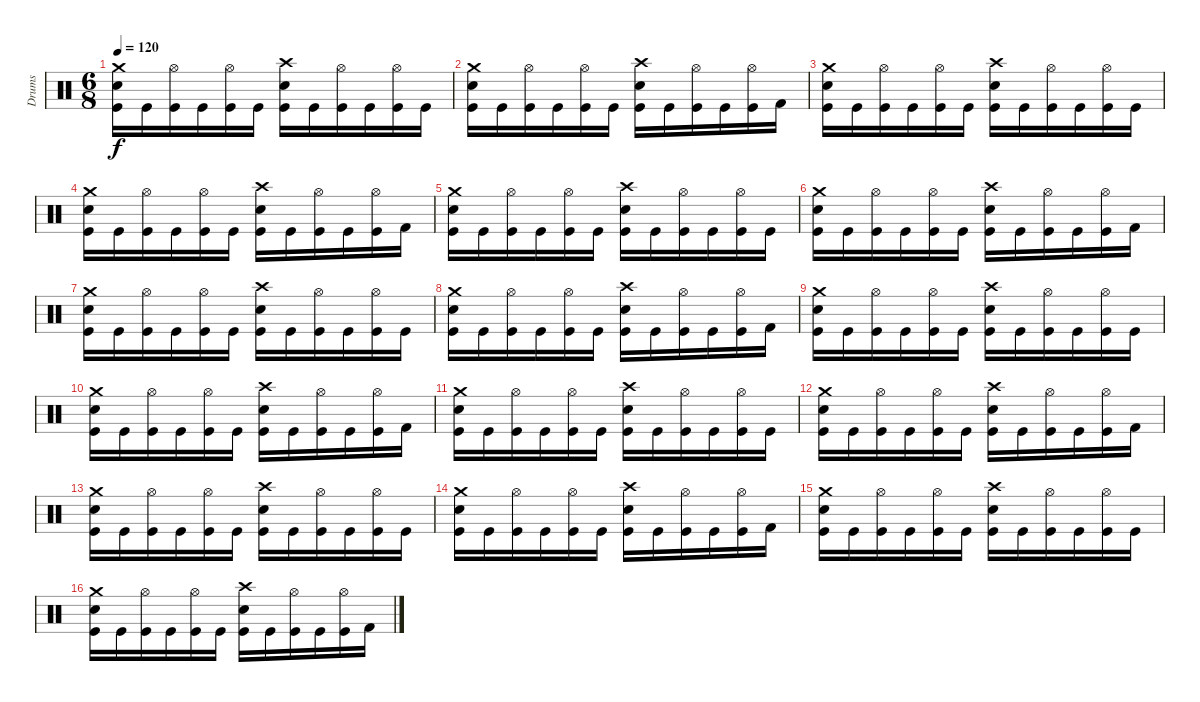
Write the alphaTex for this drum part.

\track ("Drums" "Drums") {instrument percussion}
\staff {score}
\articulation defaults
\ts (6 8)
\tempo 120
\clef neutral
\ks c
("Crash medium (hit)" "Electric Snare (hit)" "Kick (hit)").16{dy f beam merge} "Kick (hit)".16 ("Hi-Hat (open)" "Kick (hit)").16 "Kick (hit)".16 ("Hi-Hat (open)" "Kick (hit)").16 "Kick (hit)".16 ("Crash high (hit)" "Electric Snare (hit)" "Kick (hit)").16{beam merge} "Kick (hit)".16 ("Hi-Hat (open)" "Kick (hit)").16 "Kick (hit)".16 ("Hi-Hat (open)" "Kick (hit)").16 "Kick (hit)".16 |
("Crash medium (hit)" "Electric Snare (hit)" "Kick (hit)").16 "Kick (hit)".16 ("Hi-Hat (open)" "Kick (hit)").16 "Kick (hit)".16 ("Hi-Hat (open)" "Kick (hit)").16 "Kick (hit)".16 ("Crash high (hit)" "Electric Snare (hit)" "Kick (hit)").16{beam merge} "Kick (hit)".16{beam merge} ("Hi-Hat (open)" "Kick (hit)").16{beam merge} "Kick (hit)".16 ("Hi-Hat (open)" "Kick (hit)").16 "Kick (hit) 2".16 |
("Crash medium (hit)" "Electric Snare (hit)" "Kick (hit)").16{beam merge} "Kick (hit)".16 ("Hi-Hat (open)" "Kick (hit)").16 "Kick (hit)".16 ("Hi-Hat (open)" "Kick (hit)").16 "Kick (hit)".16 ("Crash high (hit)" "Electric Snare (hit)" "Kick (hit)").16{beam merge} "Kick (hit)".16 ("Hi-Hat (open)" "Kick (hit)").16 "Kick (hit)".16 ("Hi-Hat (open)" "Kick (hit)").16 "Kick (hit)".16 |
("Crash medium (hit)" "Electric Snare (hit)" "Kick (hit)").16 "Kick (hit)".16 ("Hi-Hat (open)" "Kick (hit)").16 "Kick (hit)".16 ("Hi-Hat (open)" "Kick (hit)").16 "Kick (hit)".16 ("Crash high (hit)" "Electric Snare (hit)" "Kick (hit)").16{beam merge} "Kick (hit)".16{beam merge} ("Hi-Hat (open)" "Kick (hit)").16{beam merge} "Kick (hit)".16 ("Hi-Hat (open)" "Kick (hit)").16 "Kick (hit) 2".16 |
("Crash medium (hit)" "Electric Snare (hit)" "Kick (hit)").16{beam merge} "Kick (hit)".16 ("Hi-Hat (open)" "Kick (hit)").16 "Kick (hit)".16 ("Hi-Hat (open)" "Kick (hit)").16 "Kick (hit)".16 ("Crash high (hit)" "Electric Snare (hit)" "Kick (hit)").16{beam merge} "Kick (hit)".16 ("Hi-Hat (open)" "Kick (hit)").16 "Kick (hit)".16 ("Hi-Hat (open)" "Kick (hit)").16 "Kick (hit)".16 |
("Crash medium (hit)" "Electric Snare (hit)" "Kick (hit)").16 "Kick (hit)".16 ("Hi-Hat (open)" "Kick (hit)").16 "Kick (hit)".16 ("Hi-Hat (open)" "Kick (hit)").16 "Kick (hit)".16 ("Crash high (hit)" "Electric Snare (hit)" "Kick (hit)").16{beam merge} "Kick (hit)".16{beam merge} ("Hi-Hat (open)" "Kick (hit)").16{beam merge} "Kick (hit)".16 ("Hi-Hat (open)" "Kick (hit)").16 "Kick (hit) 2".16 |
("Crash medium (hit)" "Electric Snare (hit)" "Kick (hit)").16{beam merge} "Kick (hit)".16 ("Hi-Hat (open)" "Kick (hit)").16 "Kick (hit)".16 ("Hi-Hat (open)" "Kick (hit)").16 "Kick (hit)".16 ("Crash high (hit)" "Electric Snare (hit)" "Kick (hit)").16{beam merge} "Kick (hit)".16 ("Hi-Hat (open)" "Kick (hit)").16 "Kick (hit)".16 ("Hi-Hat (open)" "Kick (hit)").16 "Kick (hit)".16 |
("Crash medium (hit)" "Electric Snare (hit)" "Kick (hit)").16 "Kick (hit)".16 ("Hi-Hat (open)" "Kick (hit)").16 "Kick (hit)".16 ("Hi-Hat (open)" "Kick (hit)").16 "Kick (hit)".16 ("Crash high (hit)" "Electric Snare (hit)" "Kick (hit)").16{beam merge} "Kick (hit)".16{beam merge} ("Hi-Hat (open)" "Kick (hit)").16{beam merge} "Kick (hit)".16 ("Hi-Hat (open)" "Kick (hit)").16 "Kick (hit) 2".16 |
("Crash medium (hit)" "Electric Snare (hit)" "Kick (hit)").16{beam merge} "Kick (hit)".16 ("Hi-Hat (open)" "Kick (hit)").16 "Kick (hit)".16 ("Hi-Hat (open)" "Kick (hit)").16 "Kick (hit)".16 ("Crash high (hit)" "Electric Snare (hit)" "Kick (hit)").16{beam merge} "Kick (hit)".16 ("Hi-Hat (open)" "Kick (hit)").16 "Kick (hit)".16 ("Hi-Hat (open)" "Kick (hit)").16 "Kick (hit)".16 |
("Crash medium (hit)" "Electric Snare (hit)" "Kick (hit)").16 "Kick (hit)".16 ("Hi-Hat (open)" "Kick (hit)").16 "Kick (hit)".16 ("Hi-Hat (open)" "Kick (hit)").16 "Kick (hit)".16 ("Crash high (hit)" "Electric Snare (hit)" "Kick (hit)").16{beam merge} "Kick (hit)".16{beam merge} ("Hi-Hat (open)" "Kick (hit)").16{beam merge} "Kick (hit)".16 ("Hi-Hat (open)" "Kick (hit)").16 "Kick (hit) 2".16 |
("Crash medium (hit)" "Electric Snare (hit)" "Kick (hit)").16{beam merge} "Kick (hit)".16 ("Hi-Hat (open)" "Kick (hit)").16 "Kick (hit)".16 ("Hi-Hat (open)" "Kick (hit)").16 "Kick (hit)".16 ("Crash high (hit)" "Electric Snare (hit)" "Kick (hit)").16{beam merge} "Kick (hit)".16 ("Hi-Hat (open)" "Kick (hit)").16 "Kick (hit)".16 ("Hi-Hat (open)" "Kick (hit)").16 "Kick (hit)".16 |
("Crash medium (hit)" "Electric Snare (hit)" "Kick (hit)").16 "Kick (hit)".16 ("Hi-Hat (open)" "Kick (hit)").16 "Kick (hit)".16 ("Hi-Hat (open)" "Kick (hit)").16 "Kick (hit)".16 ("Crash high (hit)" "Electric Snare (hit)" "Kick (hit)").16{beam merge} "Kick (hit)".16{beam merge} ("Hi-Hat (open)" "Kick (hit)").16{beam merge} "Kick (hit)".16 ("Hi-Hat (open)" "Kick (hit)").16 "Kick (hit) 2".16 |
("Crash medium (hit)" "Electric Snare (hit)" "Kick (hit)").16{beam merge} "Kick (hit)".16 ("Hi-Hat (open)" "Kick (hit)").16 "Kick (hit)".16 ("Hi-Hat (open)" "Kick (hit)").16 "Kick (hit)".16 ("Crash high (hit)" "Electric Snare (hit)" "Kick (hit)").16{beam merge} "Kick (hit)".16 ("Hi-Hat (open)" "Kick (hit)").16 "Kick (hit)".16 ("Hi-Hat (open)" "Kick (hit)").16 "Kick (hit)".16 |
("Crash medium (hit)" "Electric Snare (hit)" "Kick (hit)").16 "Kick (hit)".16 ("Hi-Hat (open)" "Kick (hit)").16 "Kick (hit)".16 ("Hi-Hat (open)" "Kick (hit)").16 "Kick (hit)".16 ("Crash high (hit)" "Electric Snare (hit)" "Kick (hit)").16{beam merge} "Kick (hit)".16{beam merge} ("Hi-Hat (open)" "Kick (hit)").16{beam merge} "Kick (hit)".16 ("Hi-Hat (open)" "Kick (hit)").16 "Kick (hit) 2".16 |
("Crash medium (hit)" "Electric Snare (hit)" "Kick (hit)").16{beam merge} "Kick (hit)".16 ("Hi-Hat (open)" "Kick (hit)").16 "Kick (hit)".16 ("Hi-Hat (open)" "Kick (hit)").16 "Kick (hit)".16 ("Crash high (hit)" "Electric Snare (hit)" "Kick (hit)").16{beam merge} "Kick (hit)".16 ("Hi-Hat (open)" "Kick (hit)").16 "Kick (hit)".16 ("Hi-Hat (open)" "Kick (hit)").16 "Kick (hit)".16 |
("Crash medium (hit)" "Electric Snare (hit)" "Kick (hit)").16 "Kick (hit)".16 ("Hi-Hat (open)" "Kick (hit)").16 "Kick (hit)".16 ("Hi-Hat (open)" "Kick (hit)").16 "Kick (hit)".16 ("Crash high (hit)" "Electric Snare (hit)" "Kick (hit)").16{beam merge} "Kick (hit)".16{beam merge} ("Hi-Hat (open)" "Kick (hit)").16{beam merge} "Kick (hit)".16 ("Hi-Hat (open)" "Kick (hit)").16 "Kick (hit) 2".16
